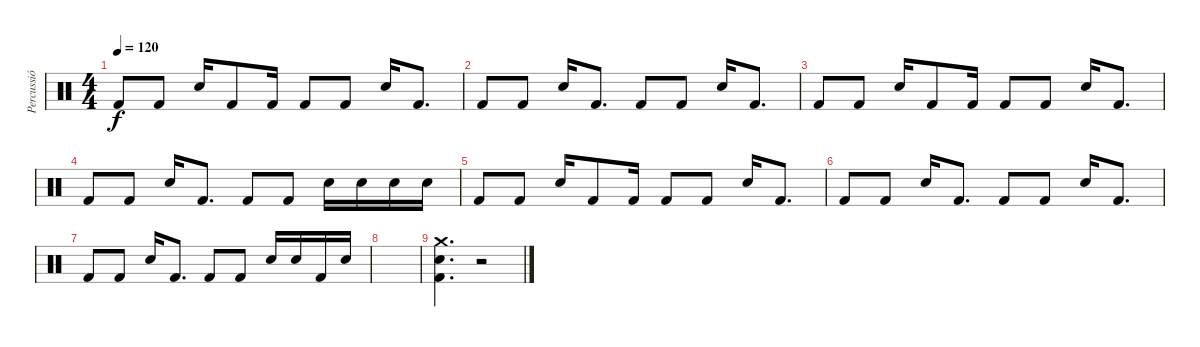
\track ("Percussió" "Percussió") {instrument percussion}
\staff {score}
\articulation defaults
\ts (4 4)
\tempo 120
\clef neutral
\ks c "Kick (hit) 2".8{dy f} "Kick (hit) 2".8 "Electric Snare (hit)".16 "Kick (hit) 2".8 "Kick (hit) 2".16 "Kick (hit) 2".8 "Kick (hit) 2".8 "Electric Snare (hit)".16 "Kick (hit) 2".8{d}
|
"Kick (hit) 2".8 "Kick (hit) 2".8 "Electric Snare (hit)".16 "Kick (hit) 2".8{d} "Kick (hit) 2".8 "Kick (hit) 2".8 "Electric Snare (hit)".16 "Kick (hit) 2".8{d} |
"Kick (hit) 2".8 "Kick (hit) 2".8 "Electric Snare (hit)".16 "Kick (hit) 2".8 "Kick (hit) 2".16 "Kick (hit) 2".8 "Kick (hit) 2".8 "Electric Snare (hit)".16 "Kick (hit) 2".8{d} |
"Kick (hit) 2".8 "Kick (hit) 2".8 "Electric Snare (hit)".16 "Kick (hit) 2".8{d} "Kick (hit) 2".8 "Kick (hit) 2".8 "Electric Snare (hit)".16 "Electric Snare (hit)".16 "Electric Snare (hit)".16 "Electric Snare (hit)".16 |
"Kick (hit) 2".8 "Kick (hit) 2".8 "Electric Snare (hit)".16 "Kick (hit) 2".8 "Kick (hit) 2".16 "Kick (hit) 2".8 "Kick (hit) 2".8 "Electric Snare (hit)".16 "Kick (hit) 2".8{d} |
"Kick (hit) 2".8 "Kick (hit) 2".8 "Electric Snare (hit)".16 "Kick (hit) 2".8{d} "Kick (hit) 2".8 "Kick (hit) 2".8 "Electric Snare (hit)".16 "Kick (hit) 2".8{d} |
"Kick (hit) 2".8 "Kick (hit) 2".8 "Electric Snare (hit)".16 "Kick (hit) 2".8{d} "Kick (hit) 2".8 "Kick (hit) 2".8 "Electric Snare (hit)".16 "Electric Snare (hit)".16 "Kick (hit) 2".16 "Electric Snare (hit)".16 |
|
("Crash medium (hit)" "Electric Snare (hit)" "Kick (hit) 2").4{d} r.2
